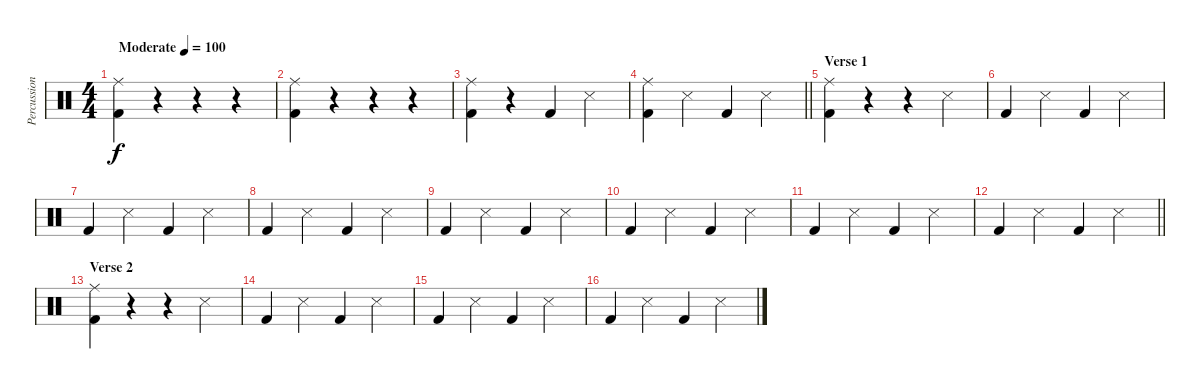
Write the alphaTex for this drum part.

\track ("Percussion" "Percussion") {instrument percussion}
\staff {score}
\articulation defaults
\ts (4 4)
\tempo (100 "Moderate")
\clef neutral
\ks c
("Ride (middle)" "Kick (hit) 2").4{dy f} r.4 r.4 r.4 |
("Ride (middle)" "Kick (hit) 2").4 r.4 r.4 r.4 |
("Ride (middle)" "Kick (hit) 2").4 r.4 "Kick (hit) 2".4 "Snare (side stick) 3".4 |
\barLineRight lightlight
("Ride (middle)" "Kick (hit) 2").4 "Snare (side stick) 3".4 "Kick (hit) 2".4 "Snare (side stick) 3".4 |
\section ("" "Verse 1")
("Ride (middle)" "Kick (hit) 2").4 r.4 r.4 "Snare (side stick) 3".4 |
"Kick (hit) 2".4 "Snare (side stick) 3".4 "Kick (hit) 2".4 "Snare (side stick) 3".4 |
"Kick (hit) 2".4 "Snare (side stick) 3".4 "Kick (hit) 2".4 "Snare (side stick) 3".4 |
"Kick (hit) 2".4 "Snare (side stick) 3".4 "Kick (hit) 2".4 "Snare (side stick) 3".4 |
"Kick (hit) 2".4 "Snare (side stick) 3".4 "Kick (hit) 2".4 "Snare (side stick) 3".4 |
"Kick (hit) 2".4 "Snare (side stick) 3".4 "Kick (hit) 2".4 "Snare (side stick) 3".4 |
"Kick (hit) 2".4 "Snare (side stick) 3".4 "Kick (hit) 2".4 "Snare (side stick) 3".4 |
\barLineRight lightlight "Kick (hit) 2".4 "Snare (side stick) 3".4 "Kick (hit) 2".4 "Snare (side stick) 3".4
|
\section ("" "Verse 2")
("Ride (middle)" "Kick (hit) 2").4 r.4 r.4 "Snare (side stick) 3".4 |
"Kick (hit) 2".4 "Snare (side stick) 3".4 "Kick (hit) 2".4 "Snare (side stick) 3".4 |
"Kick (hit) 2".4 "Snare (side stick) 3".4 "Kick (hit) 2".4 "Snare (side stick) 3".4 |
"Kick (hit) 2".4 "Snare (side stick) 3".4 "Kick (hit) 2".4 "Snare (side stick) 3".4
